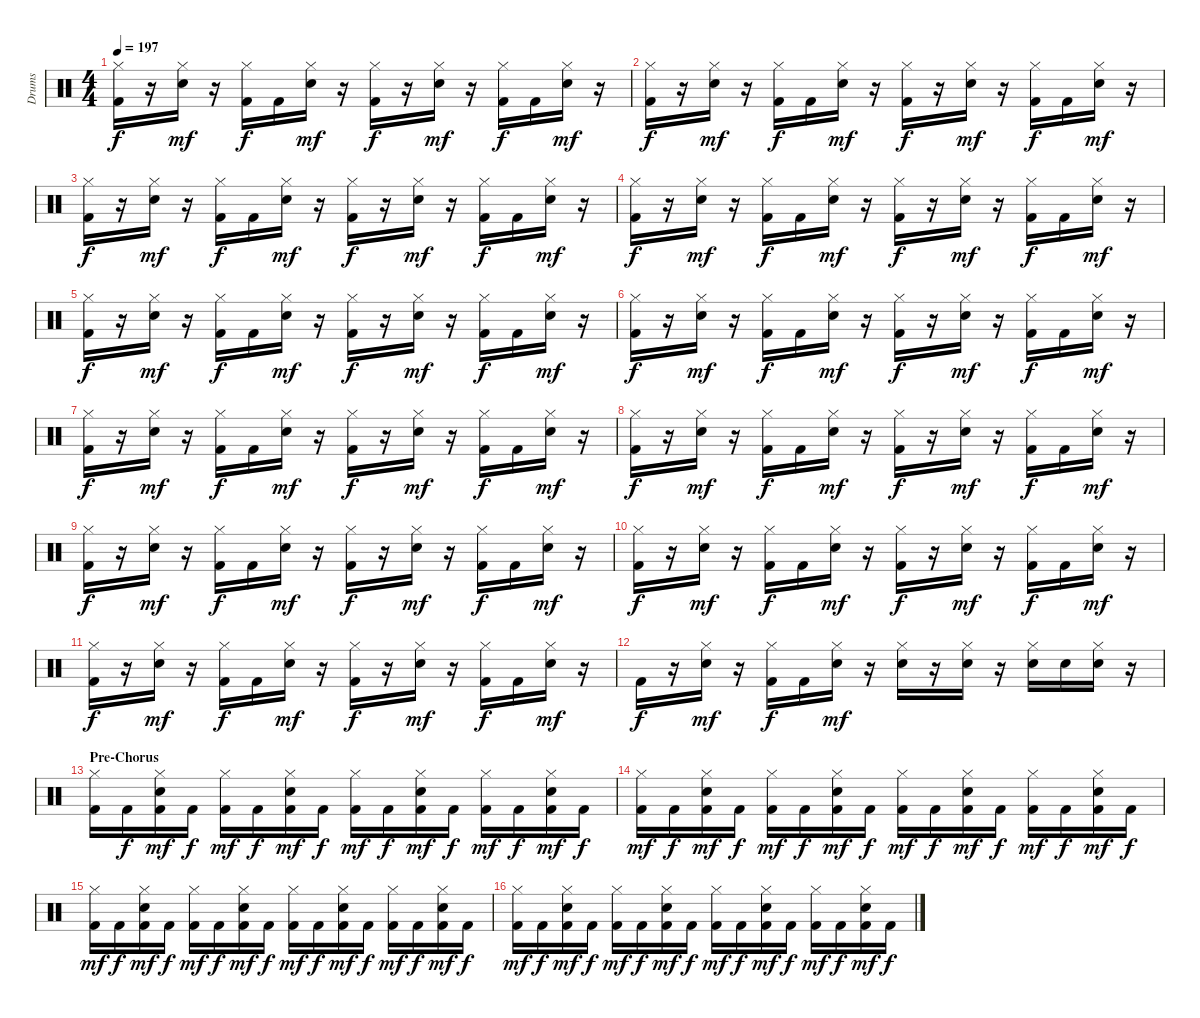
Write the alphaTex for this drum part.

\track ("Drums" "Drums") {instrument percussion}
\staff {score}
\articulation defaults
\ts (4 4)
\tempo 197
\clef neutral
\ks c
("Kick (hit) 2" "Hi-Hat (closed)").16{dy f} r.16 ("Snare (hit) 2" "Hi-Hat (closed)").16{dy mf} r.16 ("Kick (hit) 2" "Hi-Hat (closed)").16{dy f} "Kick (hit) 2".16 ("Snare (hit) 2" "Hi-Hat (closed)").16{dy mf} r.16 ("Kick (hit) 2" "Hi-Hat (closed)").16{dy f} r.16 ("Snare (hit) 2" "Hi-Hat (closed)").16{dy mf} r.16 ("Kick (hit) 2" "Hi-Hat (closed)").16{dy f} "Kick (hit) 2".16 ("Snare (hit) 2" "Hi-Hat (closed)").16{dy mf} r.16 |
("Kick (hit) 2" "Hi-Hat (closed)").16{dy f} r.16 ("Snare (hit) 2" "Hi-Hat (closed)").16{dy mf} r.16 ("Kick (hit) 2" "Hi-Hat (closed)").16{dy f} "Kick (hit) 2".16 ("Snare (hit) 2" "Hi-Hat (closed)").16{dy mf} r.16 ("Kick (hit) 2" "Hi-Hat (closed)").16{dy f} r.16 ("Snare (hit) 2" "Hi-Hat (closed)").16{dy mf} r.16 ("Kick (hit) 2" "Hi-Hat (closed)").16{dy f} "Kick (hit) 2".16 ("Snare (hit) 2" "Hi-Hat (closed)").16{dy mf} r.16 |
("Kick (hit) 2" "Hi-Hat (closed)").16{dy f} r.16 ("Snare (hit) 2" "Hi-Hat (closed)").16{dy mf} r.16 ("Kick (hit) 2" "Hi-Hat (closed)").16{dy f} "Kick (hit) 2".16 ("Snare (hit) 2" "Hi-Hat (closed)").16{dy mf} r.16 ("Kick (hit) 2" "Hi-Hat (closed)").16{dy f} r.16 ("Snare (hit) 2" "Hi-Hat (closed)").16{dy mf} r.16 ("Kick (hit) 2" "Hi-Hat (closed)").16{dy f} "Kick (hit) 2".16 ("Snare (hit) 2" "Hi-Hat (closed)").16{dy mf} r.16 |
("Kick (hit) 2" "Hi-Hat (closed)").16{dy f} r.16 ("Snare (hit) 2" "Hi-Hat (closed)").16{dy mf} r.16 ("Kick (hit) 2" "Hi-Hat (closed)").16{dy f} "Kick (hit) 2".16 ("Snare (hit) 2" "Hi-Hat (closed)").16{dy mf} r.16 ("Kick (hit) 2" "Hi-Hat (closed)").16{dy f} r.16 ("Snare (hit) 2" "Hi-Hat (closed)").16{dy mf} r.16 ("Kick (hit) 2" "Hi-Hat (closed)").16{dy f} "Kick (hit) 2".16 ("Snare (hit) 2" "Hi-Hat (closed)").16{dy mf} r.16 |
("Kick (hit) 2" "Hi-Hat (closed)").16{dy f} r.16 ("Snare (hit) 2" "Hi-Hat (closed)").16{dy mf} r.16 ("Kick (hit) 2" "Hi-Hat (closed)").16{dy f} "Kick (hit) 2".16 ("Snare (hit) 2" "Hi-Hat (closed)").16{dy mf} r.16 ("Kick (hit) 2" "Hi-Hat (closed)").16{dy f} r.16 ("Snare (hit) 2" "Hi-Hat (closed)").16{dy mf} r.16 ("Kick (hit) 2" "Hi-Hat (closed)").16{dy f} "Kick (hit) 2".16 ("Snare (hit) 2" "Hi-Hat (closed)").16{dy mf} r.16 |
("Kick (hit) 2" "Hi-Hat (closed)").16{dy f} r.16 ("Snare (hit) 2" "Hi-Hat (closed)").16{dy mf} r.16 ("Kick (hit) 2" "Hi-Hat (closed)").16{dy f} "Kick (hit) 2".16 ("Snare (hit) 2" "Hi-Hat (closed)").16{dy mf} r.16 ("Kick (hit) 2" "Hi-Hat (closed)").16{dy f} r.16 ("Snare (hit) 2" "Hi-Hat (closed)").16{dy mf} r.16 ("Kick (hit) 2" "Hi-Hat (closed)").16{dy f} "Kick (hit) 2".16 ("Snare (hit) 2" "Hi-Hat (closed)").16{dy mf} r.16 |
("Kick (hit) 2" "Hi-Hat (closed)").16{dy f} r.16 ("Snare (hit) 2" "Hi-Hat (closed)").16{dy mf} r.16 ("Kick (hit) 2" "Hi-Hat (closed)").16{dy f} "Kick (hit) 2".16 ("Snare (hit) 2" "Hi-Hat (closed)").16{dy mf} r.16 ("Kick (hit) 2" "Hi-Hat (closed)").16{dy f} r.16 ("Snare (hit) 2" "Hi-Hat (closed)").16{dy mf} r.16 ("Kick (hit) 2" "Hi-Hat (closed)").16{dy f} "Kick (hit) 2".16 ("Snare (hit) 2" "Hi-Hat (closed)").16{dy mf} r.16 |
("Kick (hit) 2" "Hi-Hat (closed)").16{dy f} r.16 ("Snare (hit) 2" "Hi-Hat (closed)").16{dy mf} r.16 ("Kick (hit) 2" "Hi-Hat (closed)").16{dy f} "Kick (hit) 2".16 ("Snare (hit) 2" "Hi-Hat (closed)").16{dy mf} r.16 ("Kick (hit) 2" "Hi-Hat (closed)").16{dy f} r.16 ("Snare (hit) 2" "Hi-Hat (closed)").16{dy mf} r.16 ("Kick (hit) 2" "Hi-Hat (closed)").16{dy f} "Kick (hit) 2".16 ("Snare (hit) 2" "Hi-Hat (closed)").16{dy mf} r.16 |
("Kick (hit) 2" "Hi-Hat (closed)").16{dy f} r.16 ("Snare (hit) 2" "Hi-Hat (closed)").16{dy mf} r.16 ("Kick (hit) 2" "Hi-Hat (closed)").16{dy f} "Kick (hit) 2".16 ("Snare (hit) 2" "Hi-Hat (closed)").16{dy mf} r.16 ("Kick (hit) 2" "Hi-Hat (closed)").16{dy f} r.16 ("Snare (hit) 2" "Hi-Hat (closed)").16{dy mf} r.16 ("Kick (hit) 2" "Hi-Hat (closed)").16{dy f} "Kick (hit) 2".16 ("Snare (hit) 2" "Hi-Hat (closed)").16{dy mf} r.16 |
("Kick (hit) 2" "Hi-Hat (closed)").16{dy f} r.16 ("Snare (hit) 2" "Hi-Hat (closed)").16{dy mf} r.16 ("Kick (hit) 2" "Hi-Hat (closed)").16{dy f} "Kick (hit) 2".16 ("Snare (hit) 2" "Hi-Hat (closed)").16{dy mf} r.16 ("Kick (hit) 2" "Hi-Hat (closed)").16{dy f} r.16 ("Snare (hit) 2" "Hi-Hat (closed)").16{dy mf} r.16 ("Kick (hit) 2" "Hi-Hat (closed)").16{dy f} "Kick (hit) 2".16 ("Snare (hit) 2" "Hi-Hat (closed)").16{dy mf} r.16 |
("Kick (hit) 2" "Hi-Hat (closed)").16{dy f} r.16 ("Snare (hit) 2" "Hi-Hat (closed)").16{dy mf} r.16 ("Kick (hit) 2" "Hi-Hat (closed)").16{dy f} "Kick (hit) 2".16 ("Snare (hit) 2" "Hi-Hat (closed)").16{dy mf} r.16 ("Kick (hit) 2" "Hi-Hat (closed)").16{dy f} r.16 ("Snare (hit) 2" "Hi-Hat (closed)").16{dy mf} r.16 ("Kick (hit) 2" "Hi-Hat (closed)").16{dy f} "Kick (hit) 2".16 ("Snare (hit) 2" "Hi-Hat (closed)").16{dy mf} r.16 |
"Kick (hit) 2".16{dy f} r.16 ("Snare (hit) 2" "Hi-Hat (closed)").16{dy mf} r.16 ("Kick (hit) 2" "Hi-Hat (closed)").16{dy f} "Kick (hit) 2".16 ("Snare (hit) 2" "Hi-Hat (closed)").16{dy mf} r.16 ("Snare (hit) 2" "Hi-Hat (closed)").16 r.16 ("Snare (hit) 2" "Hi-Hat (closed)").16 r.16 ("Snare (hit) 2" "Hi-Hat (closed)").16 "Snare (hit) 2".16 ("Snare (hit) 2" "Hi-Hat (closed)").16 r.16 |
\section ("" "Pre-Chorus")
("Kick (hit) 2" "Hi-Hat (closed)").16 "Kick (hit) 2".16{dy f} ("Kick (hit) 2" "Snare (hit) 2" "Hi-Hat (closed)").16{dy mf} "Kick (hit) 2".16{dy f} ("Kick (hit) 2" "Hi-Hat (closed)").16{dy mf} "Kick (hit) 2".16{dy f} ("Kick (hit) 2" "Snare (hit) 2" "Hi-Hat (closed)").16{dy mf} "Kick (hit) 2".16{dy f} ("Kick (hit) 2" "Hi-Hat (closed)").16{dy mf} "Kick (hit) 2".16{dy f} ("Kick (hit) 2" "Snare (hit) 2" "Hi-Hat (closed)").16{dy mf} "Kick (hit) 2".16{dy f} ("Kick (hit) 2" "Hi-Hat (closed)").16{dy mf} "Kick (hit) 2".16{dy f} ("Kick (hit) 2" "Snare (hit) 2" "Hi-Hat (closed)").16{dy mf} "Kick (hit) 2".16{dy f} |
("Kick (hit) 2" "Hi-Hat (closed)").16{dy mf} "Kick (hit) 2".16{dy f} ("Kick (hit) 2" "Snare (hit) 2" "Hi-Hat (closed)").16{dy mf} "Kick (hit) 2".16{dy f} ("Kick (hit) 2" "Hi-Hat (closed)").16{dy mf} "Kick (hit) 2".16{dy f} ("Kick (hit) 2" "Snare (hit) 2" "Hi-Hat (closed)").16{dy mf} "Kick (hit) 2".16{dy f} ("Kick (hit) 2" "Hi-Hat (closed)").16{dy mf} "Kick (hit) 2".16{dy f} ("Kick (hit) 2" "Snare (hit) 2" "Hi-Hat (closed)").16{dy mf} "Kick (hit) 2".16{dy f} ("Kick (hit) 2" "Hi-Hat (closed)").16{dy mf} "Kick (hit) 2".16{dy f} ("Kick (hit) 2" "Snare (hit) 2" "Hi-Hat (closed)").16{dy mf} "Kick (hit) 2".16{dy f} |
("Kick (hit) 2" "Hi-Hat (closed)").16{dy mf} "Kick (hit) 2".16{dy f} ("Kick (hit) 2" "Snare (hit) 2" "Hi-Hat (closed)").16{dy mf} "Kick (hit) 2".16{dy f} ("Kick (hit) 2" "Hi-Hat (closed)").16{dy mf} "Kick (hit) 2".16{dy f} ("Kick (hit) 2" "Snare (hit) 2" "Hi-Hat (closed)").16{dy mf} "Kick (hit) 2".16{dy f} ("Kick (hit) 2" "Hi-Hat (closed)").16{dy mf} "Kick (hit) 2".16{dy f} ("Kick (hit) 2" "Snare (hit) 2" "Hi-Hat (closed)").16{dy mf} "Kick (hit) 2".16{dy f} ("Kick (hit) 2" "Hi-Hat (closed)").16{dy mf} "Kick (hit) 2".16{dy f} ("Kick (hit) 2" "Snare (hit) 2" "Hi-Hat (closed)").16{dy mf} "Kick (hit) 2".16{dy f} |
("Kick (hit) 2" "Hi-Hat (closed)").16{dy mf} "Kick (hit) 2".16{dy f} ("Kick (hit) 2" "Snare (hit) 2" "Hi-Hat (closed)").16{dy mf} "Kick (hit) 2".16{dy f} ("Kick (hit) 2" "Hi-Hat (closed)").16{dy mf} "Kick (hit) 2".16{dy f} ("Kick (hit) 2" "Snare (hit) 2" "Hi-Hat (closed)").16{dy mf} "Kick (hit) 2".16{dy f} ("Kick (hit) 2" "Hi-Hat (closed)").16{dy mf} "Kick (hit) 2".16{dy f} ("Kick (hit) 2" "Snare (hit) 2" "Hi-Hat (closed)").16{dy mf} "Kick (hit) 2".16{dy f} ("Kick (hit) 2" "Hi-Hat (closed)").16{dy mf} "Kick (hit) 2".16{dy f} ("Kick (hit) 2" "Snare (hit) 2" "Hi-Hat (closed)").16{dy mf} "Kick (hit) 2".16{dy f}
